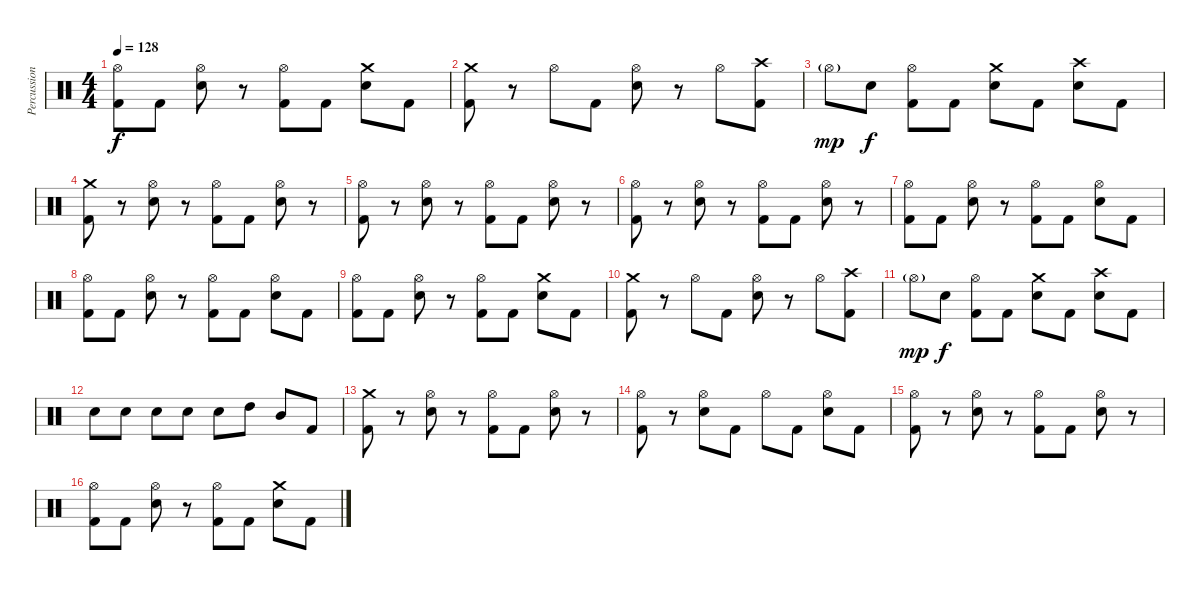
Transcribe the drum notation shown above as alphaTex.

\track ("Percussion" "Percussion") {instrument percussion}
\staff {score}
\articulation defaults
\ts (4 4)
\tempo 128
\clef neutral
\ks c
("Hi-Hat (open)" "Kick (hit) 2").8{dy f} "Kick (hit) 2".8 ("Hi-Hat (open)" "Snare (hit) 2").8 r.8 ("Hi-Hat (open)" "Kick (hit) 2").8 "Kick (hit) 2".8 ("Crash medium (hit)" "Snare (hit) 2").8 "Kick (hit) 2".8 |
("Crash medium (hit)" "Kick (hit) 2").8 r.8 "Hi-Hat (open)".8 "Kick (hit) 2".8 ("Hi-Hat (open)" "Snare (hit) 2").8 r.8 "Hi-Hat (open)".8 ("Crash high (hit)" "Kick (hit) 2").8 |
"Hi-Hat (open)"{g}.8{dy mp} "Snare (hit) 2".8{dy f} ("Hi-Hat (open)" "Kick (hit) 2").8 "Kick (hit) 2".8 ("Crash medium (hit)" "Snare (hit) 2").8 "Kick (hit) 2".8 ("Crash high (hit)" "Snare (hit) 2").8 "Kick (hit) 2".8 |
("Crash medium (hit)" "Kick (hit) 2").8 r.8 ("Hi-Hat (open)" "Snare (hit) 2").8 r.8 ("Hi-Hat (open)" "Kick (hit) 2").8 "Kick (hit) 2".8 ("Hi-Hat (open)" "Snare (hit) 2").8 r.8 |
("Hi-Hat (open)" "Kick (hit) 2").8 r.8 ("Hi-Hat (open)" "Snare (hit) 2").8 r.8 ("Hi-Hat (open)" "Kick (hit) 2").8 "Kick (hit) 2".8 ("Hi-Hat (open)" "Snare (hit) 2").8 r.8 |
("Hi-Hat (open)" "Kick (hit) 2").8 r.8 ("Hi-Hat (open)" "Snare (hit) 2").8 r.8 ("Hi-Hat (open)" "Kick (hit) 2").8 "Kick (hit) 2".8 ("Hi-Hat (open)" "Snare (hit) 2").8 r.8 |
("Hi-Hat (open)" "Kick (hit) 2").8 "Kick (hit) 2".8 ("Hi-Hat (open)" "Snare (hit) 2").8 r.8 ("Hi-Hat (open)" "Kick (hit) 2").8 "Kick (hit) 2".8 ("Hi-Hat (open)" "Snare (hit) 2").8 "Kick (hit) 2".8 |
("Hi-Hat (open)" "Kick (hit) 2").8 "Kick (hit) 2".8 ("Hi-Hat (open)" "Snare (hit) 2").8 r.8 ("Hi-Hat (open)" "Kick (hit) 2").8 "Kick (hit) 2".8 ("Hi-Hat (open)" "Snare (hit) 2").8 "Kick (hit) 2".8 |
("Hi-Hat (open)" "Kick (hit) 2").8 "Kick (hit) 2".8 ("Hi-Hat (open)" "Snare (hit) 2").8 r.8 ("Hi-Hat (open)" "Kick (hit) 2").8 "Kick (hit) 2".8 ("Crash medium (hit)" "Snare (hit) 2").8 "Kick (hit) 2".8 |
("Crash medium (hit)" "Kick (hit) 2").8 r.8 "Hi-Hat (open)".8 "Kick (hit) 2".8 ("Hi-Hat (open)" "Snare (hit) 2").8 r.8 "Hi-Hat (open)".8 ("Crash high (hit)" "Kick (hit) 2").8 |
"Hi-Hat (open)"{g}.8{dy mp} "Snare (hit) 2".8{dy f} ("Hi-Hat (open)" "Kick (hit) 2").8 "Kick (hit) 2".8 ("Crash medium (hit)" "Snare (hit) 2").8 "Kick (hit) 2".8 ("Crash high (hit)" "Snare (hit) 2").8 "Kick (hit) 2".8 |
"Snare (hit) 2".8 "Snare (hit) 2".8 "Snare (hit) 2".8 "Snare (hit) 2".8 "Snare (hit) 2".8 "High Tom (hit)".8 "Mid Tom (hit)".8 "Kick (hit) 2".8 |
("Crash medium (hit)" "Kick (hit) 2").8 r.8 ("Hi-Hat (open)" "Snare (hit) 2").8 r.8 ("Hi-Hat (open)" "Kick (hit) 2").8 "Kick (hit) 2".8 ("Hi-Hat (open)" "Snare (hit) 2").8 r.8 |
("Hi-Hat (open)" "Kick (hit) 2").8 r.8 ("Hi-Hat (open)" "Snare (hit) 2").8 "Kick (hit) 2".8 "Hi-Hat (open)".8 "Kick (hit) 2".8 ("Hi-Hat (open)" "Snare (hit) 2").8 "Kick (hit) 2".8 |
("Hi-Hat (open)" "Kick (hit) 2").8 r.8 ("Hi-Hat (open)" "Snare (hit) 2").8 r.8 ("Hi-Hat (open)" "Kick (hit) 2").8 "Kick (hit) 2".8 ("Hi-Hat (open)" "Snare (hit) 2").8 r.8 |
("Hi-Hat (open)" "Kick (hit) 2").8 "Kick (hit) 2".8 ("Hi-Hat (open)" "Snare (hit) 2").8 r.8 ("Hi-Hat (open)" "Kick (hit) 2").8 "Kick (hit) 2".8 ("Crash medium (hit)" "Snare (hit) 2").8 "Kick (hit) 2".8
